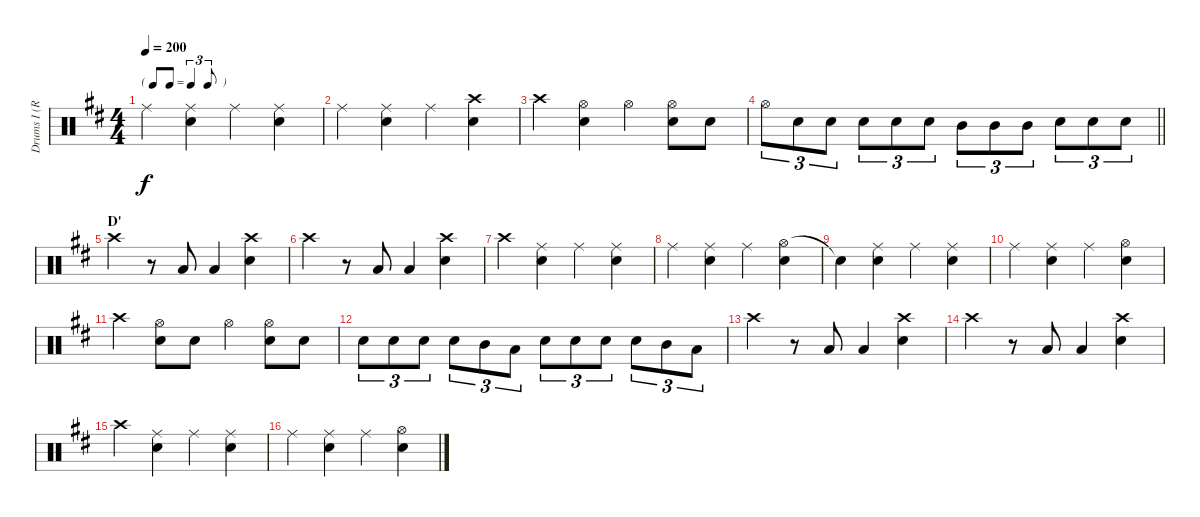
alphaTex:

\track ("Drums I (Ruka)" "Drums I (R") {instrument percussion}
\staff {score}
\articulation defaults
\ts (4 4)
\tf triplet8th
\tempo 200
\clef neutral
\ks d "Ride (middle)".4{dy f}
("Ride (middle)" "Snare (hit) 2").4 "Ride (middle)".4 ("Ride (middle)" "Snare (hit) 2").4 |
"Ride (middle)".4 ("Ride (middle)" "Snare (hit) 2").4 "Ride (middle)".4 ("Crash high (hit)" "Snare (hit) 2").4 |
"Crash high (hit)".4 ("Hi-Hat (open)" "Snare (hit) 2").4 "Hi-Hat (open)".4 ("Hi-Hat (open)" "Snare (hit) 2").8 "Snare (hit) 2".8 |
\barLineRight lightlight "Hi-Hat (open)".8{tu (3 2)} "Snare (hit) 2".8{tu (3 2)} "Snare (hit) 2".8{tu (3 2)} "Snare (hit) 2".8{tu (3 2)} "Snare (hit) 2".8{tu (3 2)} "Snare (hit) 2".8{tu (3 2)} "Mid Tom (hit)".8{tu (3 2)} "Mid Tom (hit)".8{tu (3 2)} "Mid Tom (hit)".8{tu (3 2)} "Snare (hit) 2".8{tu (3 2)} "Snare (hit) 2".8{tu (3 2)} "Snare (hit) 2".8{tu (3 2)}
|
\section ("" "D'")
"Crash high (hit)".4 r.8 "Low Tom (hit)".8 "Low Floor Tom (hit)".4 ("Crash high (hit)" "Snare (hit) 2").4 |
"Crash high (hit)".4 r.8 "Low Tom (hit)".8 "Low Floor Tom (hit)".4 ("Crash high (hit)" "Snare (hit) 2").4 |
"Crash high (hit)".4 ("Ride (middle)" "Snare (hit) 2").4 "Ride (middle)".4 ("Ride (middle)" "Snare (hit) 2").4 |
"Ride (middle)".4 ("Ride (middle)" "Snare (hit) 2").4 "Ride (middle)".4 ("Hi-Hat (open)" "Snare (hit) 2").4 |
"Snare (hit)"{t}.4 ("Ride (middle)" "Snare (hit) 2").4 "Ride (middle)".4 ("Ride (middle)" "Snare (hit) 2").4 |
"Ride (middle)".4 ("Ride (middle)" "Snare (hit) 2").4 "Ride (middle)".4 ("Hi-Hat (open)" "Snare (hit) 2").4 |
"Crash high (hit)".4 ("Hi-Hat (open)" "Snare (hit) 2").8 "Snare (hit) 2".8 "Hi-Hat (open)".4 ("Hi-Hat (open)" "Snare (hit) 2").8 "Snare (hit) 2".8 |
"Snare (hit) 2".8{tu (3 2)} "Snare (hit) 2".8{tu (3 2)} "Snare (hit) 2".8{tu (3 2)} "Snare (hit) 2".8{tu (3 2)} "Mid Tom (hit)".8{tu (3 2)} "Low Tom (hit)".8{tu (3 2)} "Snare (hit) 2".8{tu (3 2)} "Snare (hit) 2".8{tu (3 2)} "Snare (hit) 2".8{tu (3 2)} "Snare (hit) 2".8{tu (3 2)} "Mid Tom (hit)".8{tu (3 2)} "Low Tom (hit)".8{tu (3 2)} |
"Crash high (hit)".4 r.8 "Low Tom (hit)".8 "Low Tom (hit)".4 ("Crash high (hit)" "Snare (hit) 2").4 |
"Crash high (hit)".4 r.8 "Low Tom (hit)".8 "Low Tom (hit)".4 ("Crash high (hit)" "Snare (hit) 2").4 |
"Crash high (hit)".4 ("Ride (middle)" "Snare (hit) 2").4 "Ride (middle)".4 ("Ride (middle)" "Snare (hit) 2").4 |
"Ride (middle)".4 ("Ride (middle)" "Snare (hit) 2").4 "Ride (middle)".4 ("Hi-Hat (open)" "Snare (hit) 2").4
